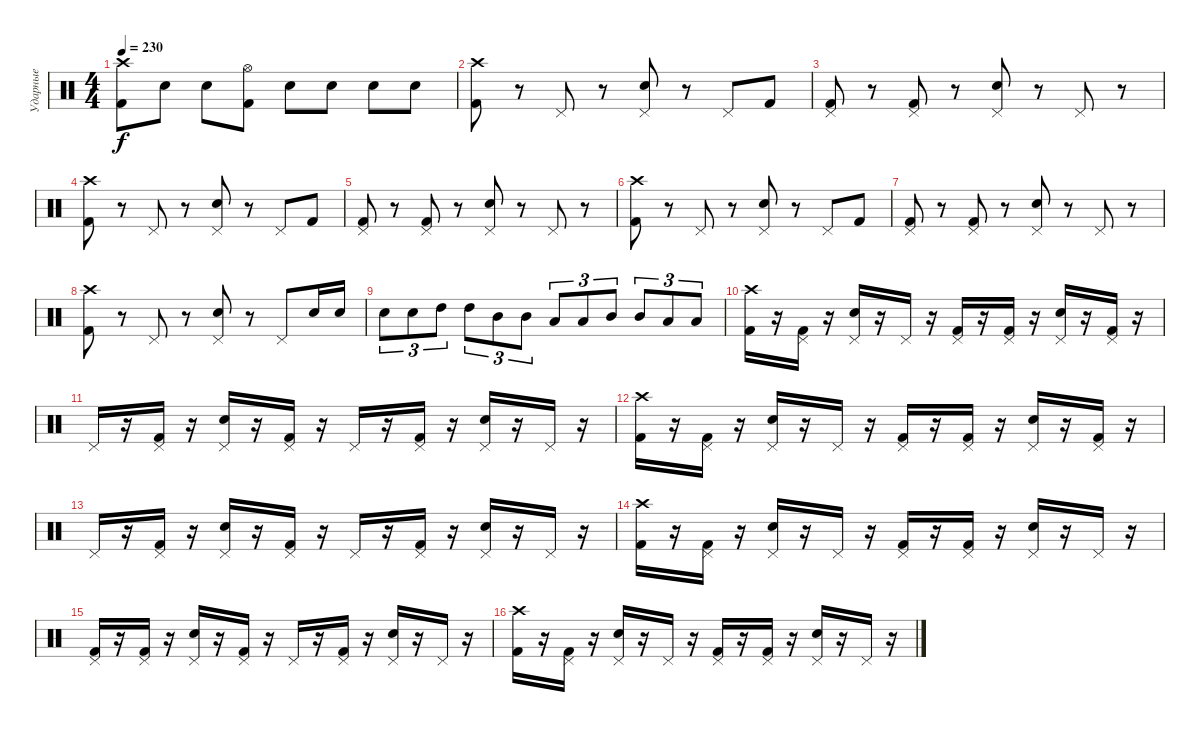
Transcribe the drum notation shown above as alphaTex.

\track ("Ударные" "Ударные") {instrument percussion}
\staff
\articulation defaults
\ts (4 4)
\tempo 230
\clef neutral
\ks c
("Crash high (hit)" "Kick (hit) 2").8{dy f} "Electric Snare (hit)".8 "Electric Snare (hit)".8 ("Hi-Hat (open)" "Kick (hit) 2").8 "Electric Snare (hit)".8 "Electric Snare (hit)".8 "Electric Snare (hit)".8 "Electric Snare (hit)".8 |
("Crash high (hit)" "Kick (hit) 2").8 r.8 "Pedal Hi-Hat (hit)".8 r.8 ("Pedal Hi-Hat (hit)" "Electric Snare (hit)").8 r.8 "Pedal Hi-Hat (hit)".8 "Kick (hit) 2".8 |
("Pedal Hi-Hat (hit)" "Kick (hit) 2").8 r.8 ("Pedal Hi-Hat (hit)" "Kick (hit) 2").8 r.8 ("Pedal Hi-Hat (hit)" "Electric Snare (hit)").8 r.8 "Pedal Hi-Hat (hit)".8 r.8 |
("Crash high (hit)" "Kick (hit) 2").8 r.8 "Pedal Hi-Hat (hit)".8 r.8 ("Pedal Hi-Hat (hit)" "Electric Snare (hit)").8 r.8 "Pedal Hi-Hat (hit)".8 "Kick (hit) 2".8 |
("Pedal Hi-Hat (hit)" "Kick (hit) 2").8 r.8 ("Pedal Hi-Hat (hit)" "Kick (hit) 2").8 r.8 ("Pedal Hi-Hat (hit)" "Electric Snare (hit)").8 r.8 "Pedal Hi-Hat (hit)".8 r.8 |
("Crash high (hit)" "Kick (hit) 2").8 r.8 "Pedal Hi-Hat (hit)".8 r.8 ("Pedal Hi-Hat (hit)" "Electric Snare (hit)").8 r.8 "Pedal Hi-Hat (hit)".8 "Kick (hit) 2".8 |
("Pedal Hi-Hat (hit)" "Kick (hit) 2").8 r.8 ("Pedal Hi-Hat (hit)" "Kick (hit) 2").8 r.8 ("Pedal Hi-Hat (hit)" "Electric Snare (hit)").8 r.8 "Pedal Hi-Hat (hit)".8 r.8 |
("Crash high (hit)" "Kick (hit) 2").8 r.8 "Pedal Hi-Hat (hit)".8 r.8 ("Pedal Hi-Hat (hit)" "Electric Snare (hit)").8 r.8 "Pedal Hi-Hat (hit)".8 "Electric Snare (hit)".16 "Electric Snare (hit)".16 |
"Electric Snare (hit)".8{tu (3 2)} "Electric Snare (hit)".8{tu (3 2)} "High Tom (hit)".8{tu (3 2)} "High Tom (hit)".8{tu (3 2)} "Mid Tom (hit)".8{tu (3 2)} "Mid Tom (hit)".8{tu (3 2)} "Low Tom (hit)".8{tu (3 2)} "Low Tom (hit)".8{tu (3 2)} "Mid Tom (hit)".8{tu (3 2)} "Mid Tom (hit)".8{tu (3 2)} "Low Tom (hit)".8{tu (3 2)} "Low Tom (hit)".8{tu (3 2)} |
("Crash high (hit)" "Kick (hit) 2").16 r.16 ("Pedal Hi-Hat (hit)" "Kick (hit) 2").16 r.16 ("Pedal Hi-Hat (hit)" "Electric Snare (hit)").16 r.16 "Pedal Hi-Hat (hit)".16 r.16 ("Pedal Hi-Hat (hit)" "Kick (hit) 2").16 r.16 ("Pedal Hi-Hat (hit)" "Kick (hit) 2").16 r.16 ("Pedal Hi-Hat (hit)" "Electric Snare (hit)").16 r.16 ("Pedal Hi-Hat (hit)" "Kick (hit) 2").16 r.16 |
"Pedal Hi-Hat (hit)".16 r.16 ("Pedal Hi-Hat (hit)" "Kick (hit) 2").16 r.16 ("Pedal Hi-Hat (hit)" "Electric Snare (hit)").16 r.16 ("Pedal Hi-Hat (hit)" "Kick (hit) 2").16 r.16 "Pedal Hi-Hat (hit)".16 r.16 ("Pedal Hi-Hat (hit)" "Kick (hit) 2").16 r.16 ("Pedal Hi-Hat (hit)" "Electric Snare (hit)").16 r.16 "Pedal Hi-Hat (hit)".16 r.16 |
("Crash high (hit)" "Kick (hit) 2").16 r.16 ("Pedal Hi-Hat (hit)" "Kick (hit) 2").16 r.16 ("Pedal Hi-Hat (hit)" "Electric Snare (hit)").16 r.16 "Pedal Hi-Hat (hit)".16 r.16 ("Pedal Hi-Hat (hit)" "Kick (hit) 2").16 r.16 ("Pedal Hi-Hat (hit)" "Kick (hit) 2").16 r.16 ("Pedal Hi-Hat (hit)" "Electric Snare (hit)").16 r.16 ("Pedal Hi-Hat (hit)" "Kick (hit) 2").16 r.16 |
"Pedal Hi-Hat (hit)".16 r.16 ("Pedal Hi-Hat (hit)" "Kick (hit) 2").16 r.16 ("Pedal Hi-Hat (hit)" "Electric Snare (hit)").16 r.16 ("Pedal Hi-Hat (hit)" "Kick (hit) 2").16 r.16 "Pedal Hi-Hat (hit)".16 r.16 ("Pedal Hi-Hat (hit)" "Kick (hit) 2").16 r.16 ("Pedal Hi-Hat (hit)" "Electric Snare (hit)").16 r.16 "Pedal Hi-Hat (hit)".16 r.16 |
("Crash high (hit)" "Kick (hit) 2").16 r.16 ("Pedal Hi-Hat (hit)" "Kick (hit) 2").16 r.16 ("Pedal Hi-Hat (hit)" "Electric Snare (hit)").16 r.16 "Pedal Hi-Hat (hit)".16 r.16 ("Pedal Hi-Hat (hit)" "Kick (hit) 2").16 r.16 ("Pedal Hi-Hat (hit)" "Kick (hit) 2").16 r.16 ("Pedal Hi-Hat (hit)" "Electric Snare (hit)").16 r.16 "Pedal Hi-Hat (hit)".16 r.16 |
("Pedal Hi-Hat (hit)" "Kick (hit) 2").16 r.16 ("Pedal Hi-Hat (hit)" "Kick (hit) 2").16 r.16 ("Pedal Hi-Hat (hit)" "Electric Snare (hit)").16 r.16 ("Pedal Hi-Hat (hit)" "Kick (hit) 2").16 r.16 "Pedal Hi-Hat (hit)".16 r.16 ("Pedal Hi-Hat (hit)" "Kick (hit) 2").16 r.16 ("Pedal Hi-Hat (hit)" "Electric Snare (hit)").16 r.16 "Pedal Hi-Hat (hit)".16 r.16 |
("Crash high (hit)" "Kick (hit) 2").16 r.16 ("Pedal Hi-Hat (hit)" "Kick (hit) 2").16 r.16 ("Pedal Hi-Hat (hit)" "Electric Snare (hit)").16 r.16 "Pedal Hi-Hat (hit)".16 r.16 ("Pedal Hi-Hat (hit)" "Kick (hit) 2").16 r.16 ("Pedal Hi-Hat (hit)" "Kick (hit) 2").16 r.16 ("Pedal Hi-Hat (hit)" "Electric Snare (hit)").16 r.16 "Pedal Hi-Hat (hit)".16 r.16
